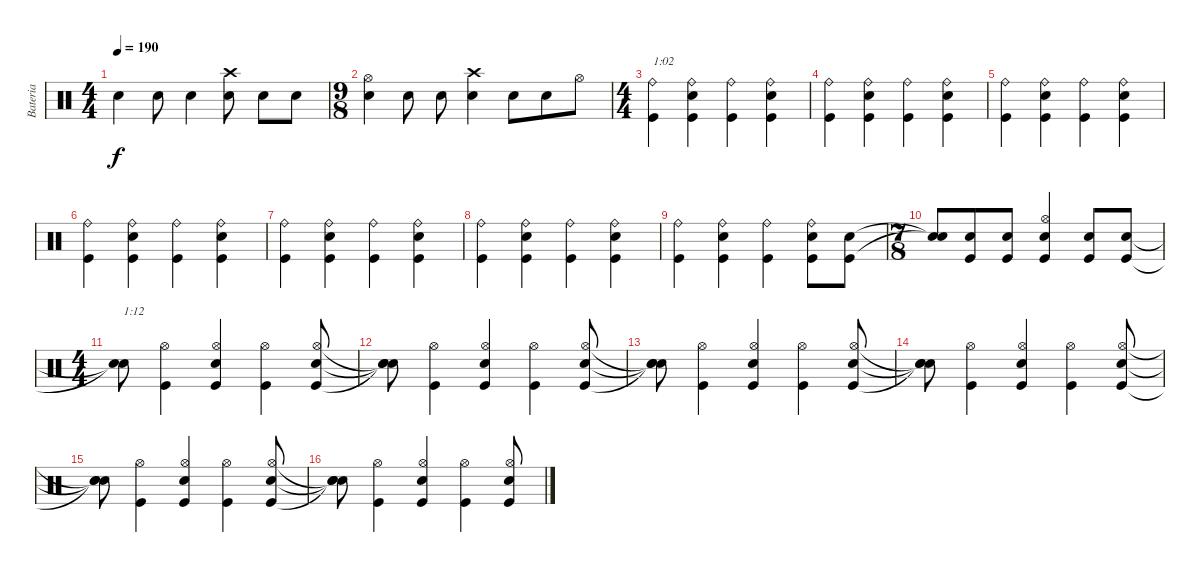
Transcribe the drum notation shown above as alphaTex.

\track ("Bateria" "Bateria") {instrument percussion}
\staff {score}
\articulation defaults
\ts (4 4)
\tempo 190
\clef neutral
\ks c "Snare (hit) 2".4{dy f} "Snare (hit) 2".8 "Snare (hit) 2".4
("Snare (hit) 2" "Crash high (hit)").8 "Snare (hit) 2".8 "Snare (hit) 2".8 |
\ts (9 8)
("Snare (hit) 2" "Hi-Hat (open)").4 "Snare (hit) 2".8 "Snare (hit) 2".8 ("Snare (hit) 2" "Crash high (hit)").4 "Snare (hit) 2".8 "Snare (hit) 2".8 "Hi-Hat (open)".8 |
\ts (4 4)
("Kick (hit)" "Ride (bell)").4{txt "1:02"} ("Kick (hit)" "Snare (hit) 2" "Ride (bell)").4 ("Kick (hit)" "Ride (bell)").4 ("Kick (hit)" "Snare (hit) 2" "Ride (bell)").4 |
("Kick (hit)" "Ride (bell)").4 ("Kick (hit)" "Snare (hit) 2" "Ride (bell)").4 ("Kick (hit)" "Ride (bell)").4 ("Kick (hit)" "Snare (hit) 2" "Ride (bell)").4 |
("Kick (hit)" "Ride (bell)").4 ("Kick (hit)" "Snare (hit) 2" "Ride (bell)").4 ("Kick (hit)" "Ride (bell)").4 ("Kick (hit)" "Snare (hit) 2" "Ride (bell)").4 |
("Kick (hit)" "Ride (bell)").4 ("Kick (hit)" "Snare (hit) 2" "Ride (bell)").4 ("Kick (hit)" "Ride (bell)").4 ("Kick (hit)" "Snare (hit) 2" "Ride (bell)").4 |
("Kick (hit)" "Ride (bell)").4 ("Kick (hit)" "Snare (hit) 2" "Ride (bell)").4 ("Kick (hit)" "Ride (bell)").4 ("Kick (hit)" "Snare (hit) 2" "Ride (bell)").4 |
("Kick (hit)" "Ride (bell)").4 ("Kick (hit)" "Snare (hit) 2" "Ride (bell)").4 ("Kick (hit)" "Ride (bell)").4 ("Kick (hit)" "Snare (hit) 2" "Ride (bell)").4 |
("Kick (hit)" "Ride (bell)").4 ("Kick (hit)" "Snare (hit) 2" "Ride (bell)").4 ("Kick (hit)" "Ride (bell)").4 ("Kick (hit)" "Snare (hit) 2" "Ride (bell)").8 ("Kick (hit)" "Snare (hit) 2").8 |
\ts (7 8)
("Snare (hit)"{t} "Snare (hit)"{t}).8 ("Kick (hit)" "Snare (hit) 2").8 ("Kick (hit)" "Snare (hit) 2").8 ("Kick (hit)" "Snare (hit) 2" "Hi-Hat (open)").4 ("Kick (hit)" "Snare (hit) 2").8 ("Kick (hit)" "Snare (hit) 2").8 |
\ts (4 4)
("Snare (hit)"{t} "Snare (hit)"{t}).8{txt "1:12"} ("Kick (hit)" "Hi-Hat (open)").4 ("Kick (hit)" "Snare (hit) 2" "Hi-Hat (open)").4 ("Kick (hit)" "Hi-Hat (open)").4 ("Kick (hit)" "Snare (hit) 2" "Hi-Hat (open)").8 |
("Snare (hit)"{t} "Snare (hit)"{t} "Snare (hit)"{t}).8 ("Kick (hit)" "Hi-Hat (open)").4 ("Kick (hit)" "Snare (hit) 2" "Hi-Hat (open)").4 ("Kick (hit)" "Hi-Hat (open)").4 ("Kick (hit)" "Snare (hit) 2" "Hi-Hat (open)").8 |
("Snare (hit)"{t} "Snare (hit)"{t} "Snare (hit)"{t}).8 ("Kick (hit)" "Hi-Hat (open)").4 ("Kick (hit)" "Snare (hit) 2" "Hi-Hat (open)").4 ("Kick (hit)" "Hi-Hat (open)").4 ("Kick (hit)" "Snare (hit) 2" "Hi-Hat (open)").8 |
("Snare (hit)"{t} "Snare (hit)"{t} "Snare (hit)"{t}).8 ("Kick (hit)" "Hi-Hat (open)").4 ("Kick (hit)" "Snare (hit) 2" "Hi-Hat (open)").4 ("Kick (hit)" "Hi-Hat (open)").4 ("Kick (hit)" "Snare (hit) 2" "Hi-Hat (open)").8 |
("Snare (hit)"{t} "Snare (hit)"{t} "Snare (hit)"{t}).8 ("Kick (hit)" "Hi-Hat (open)").4 ("Kick (hit)" "Snare (hit) 2" "Hi-Hat (open)").4 ("Kick (hit)" "Hi-Hat (open)").4 ("Kick (hit)" "Snare (hit) 2" "Hi-Hat (open)").8 |
("Snare (hit)"{t} "Snare (hit)"{t} "Snare (hit)"{t}).8 ("Kick (hit)" "Hi-Hat (open)").4 ("Kick (hit)" "Snare (hit) 2" "Hi-Hat (open)").4 ("Kick (hit)" "Hi-Hat (open)").4 ("Kick (hit)" "Snare (hit) 2" "Hi-Hat (open)").8
